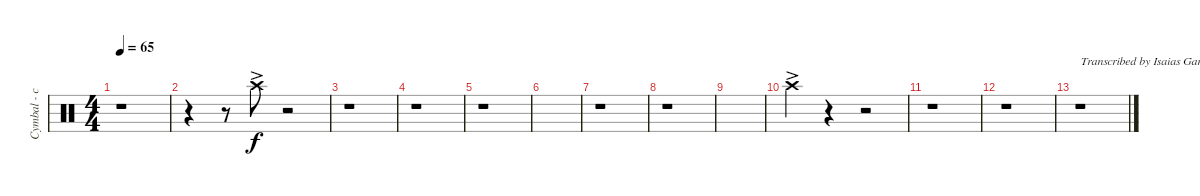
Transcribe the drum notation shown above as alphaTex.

\track ("Cymbal - crash - right" "Cymbal - c") {instrument percussion}
\staff {score}
\articulation defaults
\ts (4 4)
\tempo 65
\clef neutral
\ks c
r.1{dy f} |
r.4{beam merge} r.8 "Crash high (hit)"{ac}.8 r.2 |
r.1 |
r.1 |
r.1 |
|
r.1 |
r.1 |
|
"Crash high (hit)"{ac}.4 r.4 r.2 |
r.1 |
r.1 |
r.1{txt "Transcribed by Isaias Garcia (TexasFury)"}
